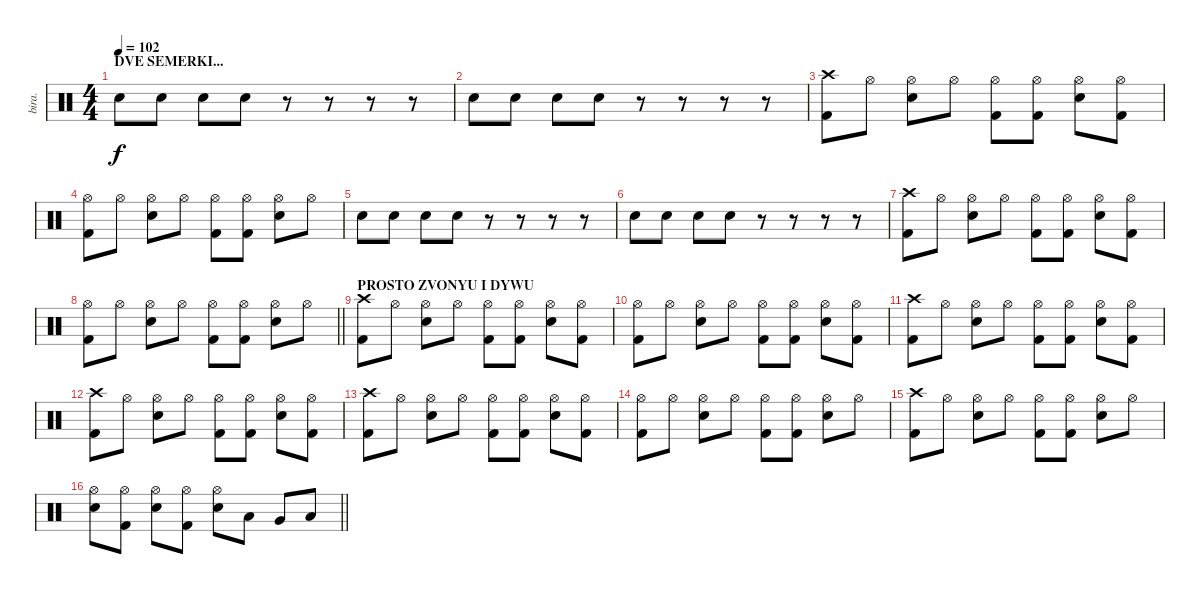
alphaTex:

\track ("bira." "bira.") {instrument percussion}
\staff {score}
\articulation defaults
\ts (4 4)
\section ("" "DVE SEMERKI...")
\tempo 102
\clef neutral
\ks c "Electric Snare (hit)".8{dy f} "Electric Snare (hit)".8 "Electric Snare (hit)".8 "Electric Snare (hit)".8
r.8 r.8 r.8 r.8 |
"Electric Snare (hit)".8 "Electric Snare (hit)".8 "Electric Snare (hit)".8 "Electric Snare (hit)".8 r.8 r.8 r.8 r.8 |
("Crash high (hit)" "Kick (hit) 2").8 "Hi-Hat (open)".8 ("Hi-Hat (open)" "Electric Snare (hit)").8 "Hi-Hat (open)".8 ("Hi-Hat (open)" "Kick (hit) 2").8 ("Hi-Hat (open)" "Kick (hit) 2").8 ("Hi-Hat (open)" "Electric Snare (hit)").8 ("Hi-Hat (open)" "Kick (hit) 2").8 |
("Hi-Hat (open)" "Kick (hit) 2").8 "Hi-Hat (open)".8 ("Hi-Hat (open)" "Electric Snare (hit)").8 "Hi-Hat (open)".8 ("Hi-Hat (open)" "Kick (hit) 2").8 ("Hi-Hat (open)" "Kick (hit) 2").8 ("Hi-Hat (open)" "Electric Snare (hit)").8 "Hi-Hat (open)".8 |
"Electric Snare (hit)".8 "Electric Snare (hit)".8 "Electric Snare (hit)".8 "Electric Snare (hit)".8 r.8 r.8 r.8 r.8 |
"Electric Snare (hit)".8 "Electric Snare (hit)".8 "Electric Snare (hit)".8 "Electric Snare (hit)".8 r.8 r.8 r.8 r.8 |
("Crash high (hit)" "Kick (hit) 2").8 "Hi-Hat (open)".8 ("Hi-Hat (open)" "Electric Snare (hit)").8 "Hi-Hat (open)".8 ("Hi-Hat (open)" "Kick (hit) 2").8 ("Hi-Hat (open)" "Kick (hit) 2").8 ("Hi-Hat (open)" "Electric Snare (hit)").8 ("Hi-Hat (open)" "Kick (hit) 2").8 |
\barLineRight lightlight
("Hi-Hat (open)" "Kick (hit) 2").8 "Hi-Hat (open)".8 ("Hi-Hat (open)" "Electric Snare (hit)").8 "Hi-Hat (open)".8 ("Hi-Hat (open)" "Kick (hit) 2").8 ("Hi-Hat (open)" "Kick (hit) 2").8 ("Hi-Hat (open)" "Electric Snare (hit)").8 "Hi-Hat (open)".8 |
\section ("" "PROSTO ZVONYU I DYWU")
("Crash high (hit)" "Kick (hit) 2").8 "Hi-Hat (open)".8 ("Hi-Hat (open)" "Electric Snare (hit)").8 "Hi-Hat (open)".8 ("Hi-Hat (open)" "Kick (hit) 2").8 ("Hi-Hat (open)" "Kick (hit) 2").8 ("Hi-Hat (open)" "Electric Snare (hit)").8 ("Hi-Hat (open)" "Kick (hit) 2").8 |
("Hi-Hat (open)" "Kick (hit) 2").8 "Hi-Hat (open)".8 ("Hi-Hat (open)" "Electric Snare (hit)").8 "Hi-Hat (open)".8 ("Hi-Hat (open)" "Kick (hit) 2").8 ("Hi-Hat (open)" "Kick (hit) 2").8 ("Hi-Hat (open)" "Electric Snare (hit)").8 ("Hi-Hat (open)" "Kick (hit) 2").8 |
("Crash high (hit)" "Kick (hit) 2").8 "Hi-Hat (open)".8 ("Hi-Hat (open)" "Electric Snare (hit)").8 "Hi-Hat (open)".8 ("Hi-Hat (open)" "Kick (hit) 2").8 ("Hi-Hat (open)" "Kick (hit) 2").8 ("Hi-Hat (open)" "Electric Snare (hit)").8 ("Hi-Hat (open)" "Kick (hit) 2").8 |
("Crash high (hit)" "Kick (hit) 2").8 "Hi-Hat (open)".8 ("Hi-Hat (open)" "Electric Snare (hit)").8 "Hi-Hat (open)".8 ("Hi-Hat (open)" "Kick (hit) 2").8 ("Hi-Hat (open)" "Kick (hit) 2").8 ("Hi-Hat (open)" "Electric Snare (hit)").8 ("Hi-Hat (open)" "Kick (hit) 2").8 |
("Crash high (hit)" "Kick (hit) 2").8 "Hi-Hat (open)".8 ("Hi-Hat (open)" "Electric Snare (hit)").8 "Hi-Hat (open)".8 ("Hi-Hat (open)" "Kick (hit) 2").8 ("Hi-Hat (open)" "Kick (hit) 2").8 ("Hi-Hat (open)" "Electric Snare (hit)").8 ("Hi-Hat (open)" "Kick (hit) 2").8 |
("Hi-Hat (open)" "Kick (hit) 2").8 "Hi-Hat (open)".8 ("Hi-Hat (open)" "Electric Snare (hit)").8 "Hi-Hat (open)".8 ("Hi-Hat (open)" "Kick (hit) 2").8 ("Hi-Hat (open)" "Kick (hit) 2").8 ("Hi-Hat (open)" "Electric Snare (hit)").8 "Hi-Hat (open)".8 |
("Crash high (hit)" "Kick (hit) 2").8 "Hi-Hat (open)".8 ("Hi-Hat (open)" "Electric Snare (hit)").8 "Hi-Hat (open)".8 ("Hi-Hat (open)" "Kick (hit) 2").8 ("Hi-Hat (open)" "Kick (hit) 2").8 ("Hi-Hat (open)" "Electric Snare (hit)").8 "Hi-Hat (open)".8 |
\barLineRight lightlight
("Hi-Hat (open)" "Electric Snare (hit)").8 ("Hi-Hat (open)" "Kick (hit) 2").8 ("Hi-Hat (open)" "Electric Snare (hit)").8 ("Hi-Hat (open)" "Kick (hit) 2").8 ("Hi-Hat (open)" "Electric Snare (hit)").8 "Low Tom (hit)".8 "Very Low Tom (hit)".8 "Low Floor Tom (hit)".8
